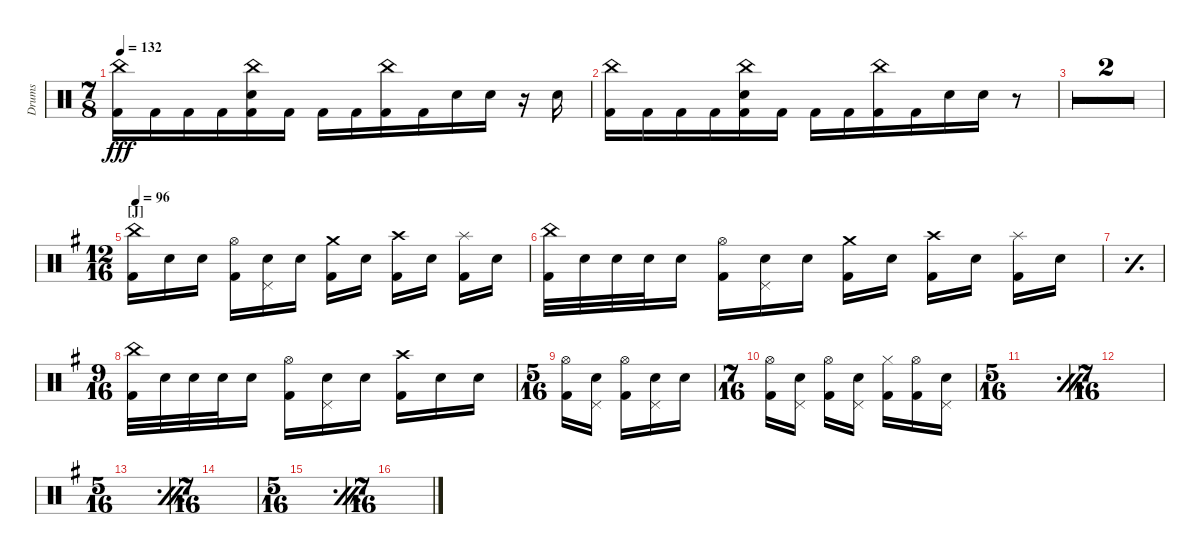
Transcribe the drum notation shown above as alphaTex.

\defaultSystemsLayout 4
\bracketExtendMode groupsimilarinstruments
\otherSystemsTrackNameOrientation horizontal
\track ("Drumkit" "Drums") {multiBarRest instrument percussion}
\staff {score}
\articulation defaults
\ts (7 8)
\beaming (8 3 3 1)
\tempo 132
\clef neutral
\ks c
("Kick (hit) 2" "China (hit)").16{dy fff} "Kick (hit) 2".16 "Kick (hit) 2".16 "Kick (hit) 2".16 ("Kick (hit) 2" "China (hit)" "Snare (hit) 2").16 "Kick (hit) 2".16 "Kick (hit) 2".16 "Kick (hit) 2".16 ("Kick (hit) 2" "China (hit)").16 "Kick (hit) 2".16 "Snare (hit) 2".16 "Snare (hit) 2".16 r.16 "Snare (hit) 2".16 |
("Kick (hit) 2" "China (hit)").16 "Kick (hit) 2".16 "Kick (hit) 2".16 "Kick (hit) 2".16 ("Kick (hit) 2" "China (hit)" "Snare (hit) 2").16 "Kick (hit) 2".16 "Kick (hit) 2".16 "Kick (hit) 2".16 ("Kick (hit) 2" "China (hit)").16 "Kick (hit) 2".16 "Snare (hit) 2".16 "Snare (hit) 2".16 r.8 |
\simile firstofdouble
|
\simile secondofdouble
|
\ts (12 16)
\beaming (8 3 3 1)
\section ("J" "")
\tempo 96
\simile none
\ks g
("China (hit)"{acc forcenatural} "Kick (hit) 2"{acc forcenatural}).16{beam merge} "Snare (hit) 2"{acc forcenatural}.16{beam merge} "Snare (hit) 2"{acc forcenatural}.16{beam split} ("Hi-Hat (open)"{acc forcenatural} "Kick (hit) 2"{acc forcenatural}).16{beam merge} ("Snare (hit) 2"{acc forcenatural} "Pedal Hi-Hat (hit)"{acc forcenatural}).16{beam merge} "Snare (hit) 2"{acc forcenatural}.16{beam split} ("Crash medium (hit)"{acc forcenatural} "Kick (hit) 2"{acc forcenatural}).16{beam merge} "Snare (hit) 2"{acc forcenatural}.16{beam split} ("Crash high (hit)"{acc forcenatural} "Kick (hit) 2"{acc forcenatural}).16{beam merge} "Snare (hit) 2"{acc forcenatural}.16{beam split} ("Splash (hit)"{acc forcenatural} "Kick (hit) 2"{acc forcenatural}).16{beam merge} "Snare (hit) 2"{acc forcenatural}.16{beam merge} |
("China (hit)"{acc forcenatural} "Kick (hit) 2"{acc forcenatural}).32{beam merge} "Snare (hit) 2"{acc forcenatural}.32{beam merge} "Snare (hit) 2"{acc forcenatural}.32{beam merge} "Snare (hit) 2"{acc forcenatural}.32{beam merge} "Snare (hit) 2"{acc forcenatural}.16{beam split} ("Hi-Hat (open)"{acc forcenatural} "Kick (hit) 2"{acc forcenatural}).16{beam merge} ("Snare (hit) 2"{acc forcenatural} "Pedal Hi-Hat (hit)"{acc forcenatural}).16{beam merge} "Snare (hit) 2"{acc forcenatural}.16{beam split} ("Crash medium (hit)"{acc forcenatural} "Kick (hit) 2"{acc forcenatural}).16{beam merge} "Snare (hit) 2"{acc forcenatural}.16{beam split} ("Crash high (hit)"{acc forcenatural} "Kick (hit) 2"{acc forcenatural}).16{beam merge} "Snare (hit) 2"{acc forcenatural}.16{beam split} ("Splash (hit)"{acc forcenatural} "Kick (hit) 2"{acc forcenatural}).16{beam merge} "Snare (hit) 2"{acc forcenatural}.16{beam merge} |
\simile simple
|
\ts (9 16)
\beaming (8 3 3 1)
\simile none
("China (hit)"{acc forcenatural} "Kick (hit) 2"{acc forcenatural}).32{beam merge} "Snare (hit) 2"{acc forcenatural}.32{beam merge} "Snare (hit) 2"{acc forcenatural}.32{beam merge} "Snare (hit) 2"{acc forcenatural}.32{beam merge} "Snare (hit) 2"{acc forcenatural}.16{beam split} ("Hi-Hat (open)"{acc forcenatural} "Kick (hit) 2"{acc forcenatural}).16{beam merge} ("Snare (hit) 2"{acc forcenatural} "Pedal Hi-Hat (hit)"{acc forcenatural}).16{beam merge} "Snare (hit) 2"{acc forcenatural}.16{beam split} ("Crash high (hit)"{acc forcenatural} "Kick (hit) 2"{acc forcenatural}).16{beam merge} "Snare (hit) 2"{acc forcenatural}.16{beam merge} "Snare (hit) 2"{acc forcenatural}.16 |
\ts (5 16)
\beaming (8 3 3 1)
("Hi-Hat (open)"{acc forcenatural} "Kick (hit) 2"{acc forcenatural}).16 ("Snare (hit) 2"{acc forcenatural} "Pedal Hi-Hat (hit)"{acc forcenatural}).16{beam split} ("Hi-Hat (open)"{acc forcenatural} "Kick (hit) 2"{acc forcenatural}).16 ("Snare (hit) 2"{acc forcenatural} "Pedal Hi-Hat (hit)"{acc forcenatural}).16 "Snare (hit) 2"{acc forcenatural}.16 |
\ts (7 16)
\beaming (8 3 3 1)
("Hi-Hat (open)"{acc forcenatural} "Kick (hit) 2"{acc forcenatural}).16{beam merge} ("Snare (hit) 2"{acc forcenatural} "Pedal Hi-Hat (hit)"{acc forcenatural}).16{beam split} ("Hi-Hat (open)"{acc forcenatural} "Kick (hit) 2"{acc forcenatural}).16{beam merge} ("Snare (hit) 2"{acc forcenatural} "Pedal Hi-Hat (hit)"{acc forcenatural}).16{beam split} ("Kick (hit) 2"{acc forcenatural} "Hi-Hat (closed)"{acc forcenatural}).16{beam merge} ("Hi-Hat (open)"{acc forcenatural} "Kick (hit) 2"{acc forcenatural}).16{beam merge} ("Snare (hit) 2"{acc forcenatural} "Pedal Hi-Hat (hit)"{acc forcenatural}).16 |
\ts (5 16)
\beaming (8 3 3 1)
\simile firstofdouble
|
\ts (7 16)
\beaming (8 3 3 1)
\simile secondofdouble
|
\ts (5 16)
\beaming (8 3 3 1)
\simile firstofdouble
|
\ts (7 16)
\beaming (8 3 3 1)
\simile secondofdouble
|
\ts (5 16)
\beaming (8 3 3 1)
\simile firstofdouble
|
\ts (7 16)
\beaming (8 3 3 1)
\simile secondofdouble
